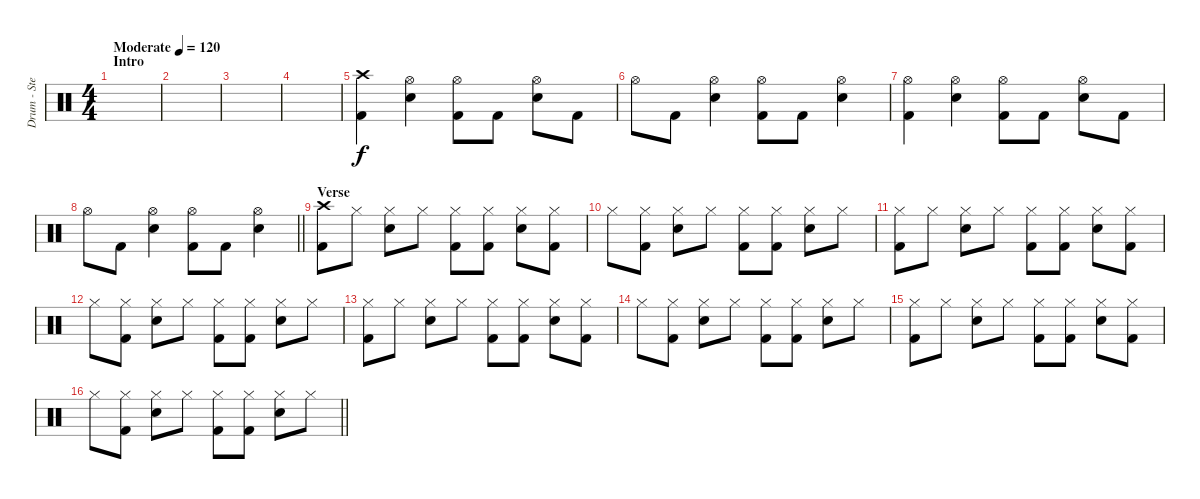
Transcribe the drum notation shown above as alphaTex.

\track ("Drum - Stevie Morley Item" "Drum - Ste") {instrument percussion}
\staff {score}
\articulation defaults
\ts (4 4)
\section ("" "Intro")
\tempo (120 "Moderate")
\clef neutral
\ks c
|
|
|
|
("Crash high (hit)" "Kick (hit) 2").4 ("Hi-Hat (open)" "Snare (hit) 2").4 ("Hi-Hat (open)" "Kick (hit) 2").8 "Kick (hit) 2".8 ("Hi-Hat (open)" "Snare (hit) 2").8 "Kick (hit) 2".8 |
"Hi-Hat (open)".8 "Kick (hit) 2".8 ("Hi-Hat (open)" "Snare (hit) 2").4 ("Hi-Hat (open)" "Kick (hit) 2").8 "Kick (hit) 2".8 ("Hi-Hat (open)" "Snare (hit) 2").4 |
("Hi-Hat (open)" "Kick (hit) 2").4 ("Hi-Hat (open)" "Snare (hit) 2").4 ("Hi-Hat (open)" "Kick (hit) 2").8 "Kick (hit) 2".8 ("Hi-Hat (open)" "Snare (hit) 2").8 "Kick (hit) 2".8 |
\barLineRight lightlight "Hi-Hat (open)".8 "Kick (hit) 2".8
("Hi-Hat (open)" "Snare (hit) 2").4 ("Hi-Hat (open)" "Kick (hit) 2").8 "Kick (hit) 2".8 ("Hi-Hat (open)" "Snare (hit) 2").4 |
\section ("" "Verse")
("Crash high (hit)" "Kick (hit) 2").8 "Hi-Hat (closed)".8 ("Hi-Hat (closed)" "Snare (hit) 2").8 "Hi-Hat (closed)".8 ("Hi-Hat (closed)" "Kick (hit) 2").8 ("Hi-Hat (closed)" "Kick (hit) 2").8 ("Hi-Hat (closed)" "Snare (hit) 2").8 ("Hi-Hat (closed)" "Kick (hit) 2").8 |
"Hi-Hat (closed)".8 ("Hi-Hat (closed)" "Kick (hit) 2").8 ("Hi-Hat (closed)" "Snare (hit) 2").8 "Hi-Hat (closed)".8 ("Hi-Hat (closed)" "Kick (hit) 2").8 ("Hi-Hat (closed)" "Kick (hit) 2").8 ("Hi-Hat (closed)" "Snare (hit) 2").8 "Hi-Hat (closed)".8 |
("Hi-Hat (closed)" "Kick (hit) 2").8 "Hi-Hat (closed)".8 ("Hi-Hat (closed)" "Snare (hit) 2").8 "Hi-Hat (closed)".8 ("Hi-Hat (closed)" "Kick (hit) 2").8 ("Hi-Hat (closed)" "Kick (hit) 2").8 ("Hi-Hat (closed)" "Snare (hit) 2").8 ("Hi-Hat (closed)" "Kick (hit) 2").8 |
"Hi-Hat (closed)".8 ("Hi-Hat (closed)" "Kick (hit) 2").8 ("Hi-Hat (closed)" "Snare (hit) 2").8 "Hi-Hat (closed)".8 ("Hi-Hat (closed)" "Kick (hit) 2").8 ("Hi-Hat (closed)" "Kick (hit) 2").8 ("Hi-Hat (closed)" "Snare (hit) 2").8 "Hi-Hat (closed)".8 |
("Hi-Hat (closed)" "Kick (hit) 2").8 "Hi-Hat (closed)".8 ("Hi-Hat (closed)" "Snare (hit) 2").8 "Hi-Hat (closed)".8 ("Hi-Hat (closed)" "Kick (hit) 2").8 ("Hi-Hat (closed)" "Kick (hit) 2").8 ("Hi-Hat (closed)" "Snare (hit) 2").8 ("Hi-Hat (closed)" "Kick (hit) 2").8 |
"Hi-Hat (closed)".8 ("Hi-Hat (closed)" "Kick (hit) 2").8 ("Hi-Hat (closed)" "Snare (hit) 2").8 "Hi-Hat (closed)".8 ("Hi-Hat (closed)" "Kick (hit) 2").8 ("Hi-Hat (closed)" "Kick (hit) 2").8 ("Hi-Hat (closed)" "Snare (hit) 2").8 "Hi-Hat (closed)".8 |
("Hi-Hat (closed)" "Kick (hit) 2").8 "Hi-Hat (closed)".8 ("Hi-Hat (closed)" "Snare (hit) 2").8 "Hi-Hat (closed)".8 ("Hi-Hat (closed)" "Kick (hit) 2").8 ("Hi-Hat (closed)" "Kick (hit) 2").8 ("Hi-Hat (closed)" "Snare (hit) 2").8 ("Hi-Hat (closed)" "Kick (hit) 2").8 |
\barLineRight lightlight "Hi-Hat (closed)".8
("Hi-Hat (closed)" "Kick (hit) 2").8 ("Hi-Hat (closed)" "Snare (hit) 2").8 "Hi-Hat (closed)".8 ("Hi-Hat (closed)" "Kick (hit) 2").8 ("Hi-Hat (closed)" "Kick (hit) 2").8 ("Hi-Hat (closed)" "Snare (hit) 2").8 "Hi-Hat (closed)".8
